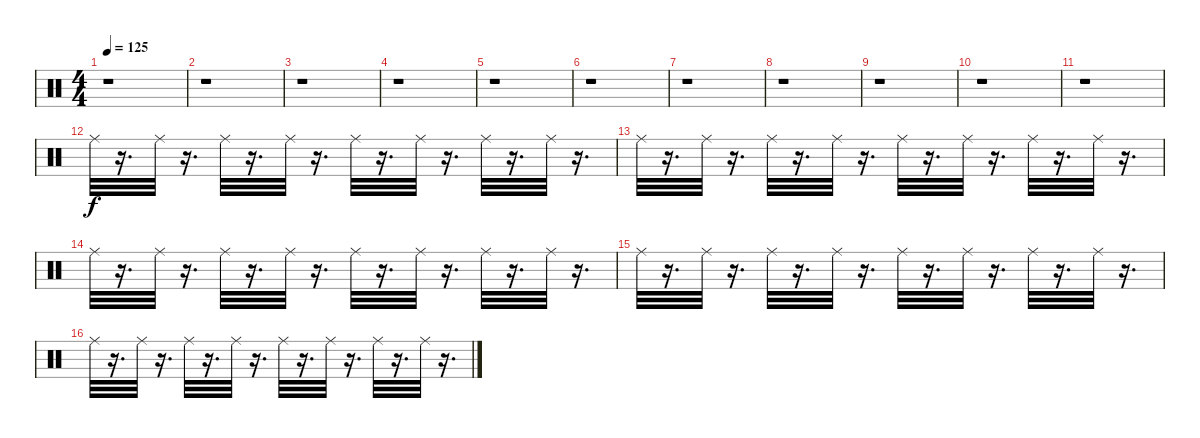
\track "" {instrument percussion}
\staff {score}
\articulation defaults
\ts (4 4)
\tempo 125
\clef neutral
\ks c
r.1{dy fff} |
r.1 |
r.1 |
r.1 |
r.1 |
r.1 |
r.1 |
r.1 |
r.1 |
r.1 |
r.1 |
"Ride (middle)".32{dy f} r.16{d} "Ride (middle)".32 r.16{d} "Ride (middle)".32 r.16{d} "Ride (middle)".32 r.16{d} "Ride (middle)".32 r.16{d} "Ride (middle)".32 r.16{d} "Ride (middle)".32 r.16{d} "Ride (middle)".32 r.16{d} |
"Ride (middle)".32 r.16{d} "Ride (middle)".32 r.16{d} "Ride (middle)".32 r.16{d} "Ride (middle)".32 r.16{d} "Ride (middle)".32 r.16{d} "Ride (middle)".32 r.16{d} "Ride (middle)".32 r.16{d} "Ride (middle)".32 r.16{d} |
"Ride (middle)".32 r.16{d} "Ride (middle)".32 r.16{d} "Ride (middle)".32 r.16{d} "Ride (middle)".32 r.16{d} "Ride (middle)".32 r.16{d} "Ride (middle)".32 r.16{d} "Ride (middle)".32 r.16{d} "Ride (middle)".32 r.16{d} |
"Ride (middle)".32 r.16{d} "Ride (middle)".32 r.16{d} "Ride (middle)".32 r.16{d} "Ride (middle)".32 r.16{d} "Ride (middle)".32 r.16{d} "Ride (middle)".32 r.16{d} "Ride (middle)".32 r.16{d} "Ride (middle)".32 r.16{d} |
"Ride (middle)".32 r.16{d} "Ride (middle)".32 r.16{d} "Ride (middle)".32 r.16{d} "Ride (middle)".32 r.16{d} "Ride (middle)".32 r.16{d} "Ride (middle)".32 r.16{d} "Ride (middle)".32 r.16{d} "Ride (middle)".32 r.16{d}
